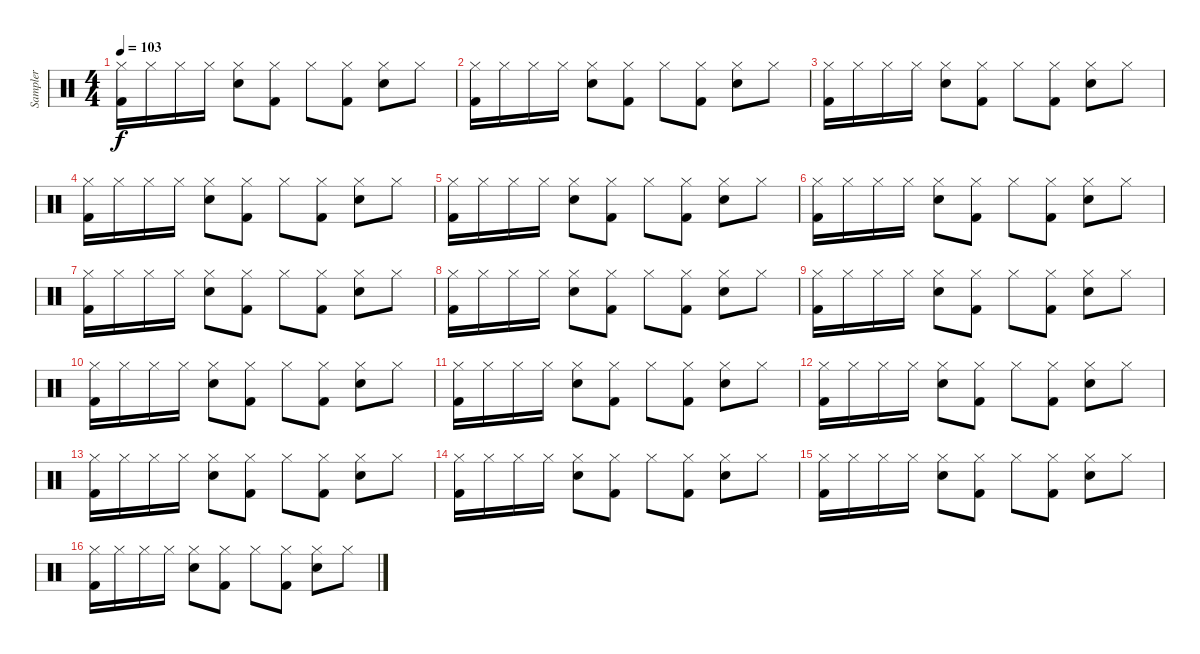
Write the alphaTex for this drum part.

\track ("Sampler" "Sampler") {instrument percussion}
\staff {score}
\articulation defaults
\ts (4 4)
\tempo 103
\clef neutral
\ks c
("Hi-Hat (closed)" "Kick (hit) 2").16{dy f} "Hi-Hat (closed)".16 "Hi-Hat (closed)".16 "Hi-Hat (closed)".16 ("Hi-Hat (closed)" "Snare (hit) 2").8 ("Hi-Hat (closed)" "Kick (hit) 2").8 "Hi-Hat (closed)".8 ("Hi-Hat (closed)" "Kick (hit) 2").8 ("Hi-Hat (closed)" "Snare (hit) 2").8 "Hi-Hat (closed)".8 |
("Hi-Hat (closed)" "Kick (hit) 2").16 "Hi-Hat (closed)".16 "Hi-Hat (closed)".16 "Hi-Hat (closed)".16 ("Hi-Hat (closed)" "Snare (hit) 2").8 ("Hi-Hat (closed)" "Kick (hit) 2").8 "Hi-Hat (closed)".8 ("Hi-Hat (closed)" "Kick (hit) 2").8 ("Hi-Hat (closed)" "Snare (hit) 2").8 "Hi-Hat (closed)".8 |
("Hi-Hat (closed)" "Kick (hit) 2").16 "Hi-Hat (closed)".16 "Hi-Hat (closed)".16 "Hi-Hat (closed)".16 ("Hi-Hat (closed)" "Snare (hit) 2").8 ("Hi-Hat (closed)" "Kick (hit) 2").8 "Hi-Hat (closed)".8 ("Hi-Hat (closed)" "Kick (hit) 2").8 ("Hi-Hat (closed)" "Snare (hit) 2").8 "Hi-Hat (closed)".8 |
("Hi-Hat (closed)" "Kick (hit) 2").16 "Hi-Hat (closed)".16 "Hi-Hat (closed)".16 "Hi-Hat (closed)".16 ("Hi-Hat (closed)" "Snare (hit) 2").8 ("Hi-Hat (closed)" "Kick (hit) 2").8 "Hi-Hat (closed)".8 ("Hi-Hat (closed)" "Kick (hit) 2").8 ("Hi-Hat (closed)" "Snare (hit) 2").8 "Hi-Hat (closed)".8 |
("Hi-Hat (closed)" "Kick (hit) 2").16 "Hi-Hat (closed)".16 "Hi-Hat (closed)".16 "Hi-Hat (closed)".16 ("Hi-Hat (closed)" "Snare (hit) 2").8 ("Hi-Hat (closed)" "Kick (hit) 2").8 "Hi-Hat (closed)".8 ("Hi-Hat (closed)" "Kick (hit) 2").8 ("Hi-Hat (closed)" "Snare (hit) 2").8 "Hi-Hat (closed)".8 |
("Hi-Hat (closed)" "Kick (hit) 2").16 "Hi-Hat (closed)".16 "Hi-Hat (closed)".16 "Hi-Hat (closed)".16 ("Hi-Hat (closed)" "Snare (hit) 2").8 ("Hi-Hat (closed)" "Kick (hit) 2").8 "Hi-Hat (closed)".8 ("Hi-Hat (closed)" "Kick (hit) 2").8 ("Hi-Hat (closed)" "Snare (hit) 2").8 "Hi-Hat (closed)".8 |
("Hi-Hat (closed)" "Kick (hit) 2").16 "Hi-Hat (closed)".16 "Hi-Hat (closed)".16 "Hi-Hat (closed)".16 ("Hi-Hat (closed)" "Snare (hit) 2").8 ("Hi-Hat (closed)" "Kick (hit) 2").8 "Hi-Hat (closed)".8 ("Hi-Hat (closed)" "Kick (hit) 2").8 ("Hi-Hat (closed)" "Snare (hit) 2").8 "Hi-Hat (closed)".8 |
("Hi-Hat (closed)" "Kick (hit) 2").16 "Hi-Hat (closed)".16 "Hi-Hat (closed)".16 "Hi-Hat (closed)".16 ("Hi-Hat (closed)" "Snare (hit) 2").8 ("Hi-Hat (closed)" "Kick (hit) 2").8 "Hi-Hat (closed)".8 ("Hi-Hat (closed)" "Kick (hit) 2").8 ("Hi-Hat (closed)" "Snare (hit) 2").8 "Hi-Hat (closed)".8 |
("Hi-Hat (closed)" "Kick (hit) 2").16 "Hi-Hat (closed)".16 "Hi-Hat (closed)".16 "Hi-Hat (closed)".16 ("Hi-Hat (closed)" "Electric Snare (hit)").8 ("Hi-Hat (closed)" "Kick (hit) 2").8 "Hi-Hat (closed)".8 ("Hi-Hat (closed)" "Kick (hit) 2").8 ("Hi-Hat (closed)" "Snare (hit) 2").8 "Hi-Hat (closed)".8 |
("Hi-Hat (closed)" "Kick (hit) 2").16 "Hi-Hat (closed)".16 "Hi-Hat (closed)".16 "Hi-Hat (closed)".16 ("Hi-Hat (closed)" "Electric Snare (hit)").8 ("Hi-Hat (closed)" "Kick (hit) 2").8 "Hi-Hat (closed)".8 ("Hi-Hat (closed)" "Kick (hit) 2").8 ("Hi-Hat (closed)" "Snare (hit) 2").8 "Hi-Hat (closed)".8 |
("Hi-Hat (closed)" "Kick (hit) 2").16 "Hi-Hat (closed)".16 "Hi-Hat (closed)".16 "Hi-Hat (closed)".16 ("Hi-Hat (closed)" "Electric Snare (hit)").8 ("Hi-Hat (closed)" "Kick (hit) 2").8 "Hi-Hat (closed)".8 ("Hi-Hat (closed)" "Kick (hit) 2").8 ("Hi-Hat (closed)" "Snare (hit) 2").8 "Hi-Hat (closed)".8 |
("Hi-Hat (closed)" "Kick (hit) 2").16 "Hi-Hat (closed)".16 "Hi-Hat (closed)".16 "Hi-Hat (closed)".16 ("Hi-Hat (closed)" "Electric Snare (hit)").8 ("Hi-Hat (closed)" "Kick (hit) 2").8 "Hi-Hat (closed)".8 ("Hi-Hat (closed)" "Kick (hit) 2").8 ("Hi-Hat (closed)" "Snare (hit) 2").8 "Hi-Hat (closed)".8 |
("Hi-Hat (closed)" "Kick (hit) 2").16 "Hi-Hat (closed)".16 "Hi-Hat (closed)".16 "Hi-Hat (closed)".16 ("Hi-Hat (closed)" "Electric Snare (hit)").8 ("Hi-Hat (closed)" "Kick (hit) 2").8 "Hi-Hat (closed)".8 ("Hi-Hat (closed)" "Kick (hit) 2").8 ("Hi-Hat (closed)" "Snare (hit) 2").8 "Hi-Hat (closed)".8 |
("Hi-Hat (closed)" "Kick (hit) 2").16 "Hi-Hat (closed)".16 "Hi-Hat (closed)".16 "Hi-Hat (closed)".16 ("Hi-Hat (closed)" "Electric Snare (hit)").8 ("Hi-Hat (closed)" "Kick (hit) 2").8 "Hi-Hat (closed)".8 ("Hi-Hat (closed)" "Kick (hit) 2").8 ("Hi-Hat (closed)" "Snare (hit) 2").8 "Hi-Hat (closed)".8 |
("Hi-Hat (closed)" "Kick (hit) 2").16 "Hi-Hat (closed)".16 "Hi-Hat (closed)".16 "Hi-Hat (closed)".16 ("Hi-Hat (closed)" "Electric Snare (hit)").8 ("Hi-Hat (closed)" "Kick (hit) 2").8 "Hi-Hat (closed)".8 ("Hi-Hat (closed)" "Kick (hit) 2").8 ("Hi-Hat (closed)" "Snare (hit) 2").8 "Hi-Hat (closed)".8 |
("Hi-Hat (closed)" "Kick (hit) 2").16 "Hi-Hat (closed)".16 "Hi-Hat (closed)".16 "Hi-Hat (closed)".16 ("Hi-Hat (closed)" "Snare (hit) 2").8 ("Hi-Hat (closed)" "Kick (hit) 2").8 "Hi-Hat (closed)".8 ("Hi-Hat (closed)" "Kick (hit) 2").8 ("Hi-Hat (closed)" "Electric Snare (hit)").8 "Hi-Hat (closed)".8
